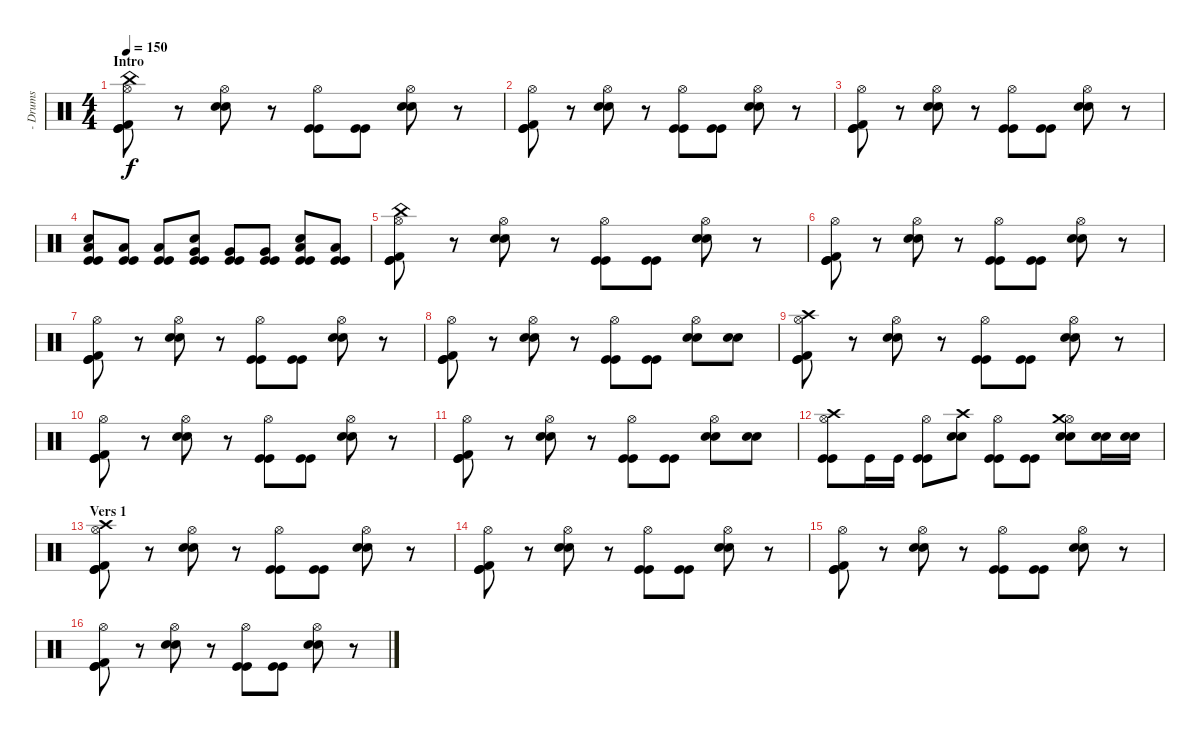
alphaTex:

\track (" - Drums" " - Drums") {instrument percussion}
\staff {score}
\articulation defaults
\ts (4 4)
\section ("" "Intro")
\tempo 150
\clef neutral
\ks c
("Hi-Hat (open)" "China (hit)" "Kick (hit) 2" "Kick (hit)" "Kick (hit)").8{dy f} r.8 ("Hi-Hat (open)" "Snare (hit) 2" "Snare (hit) 2").8 r.8 ("Hi-Hat (open)" "Kick (hit)" "Kick (hit)").8 ("Kick (hit)" "Kick (hit)").8 ("Hi-Hat (open)" "Snare (hit) 2" "Snare (hit) 2").8 r.8 |
("Hi-Hat (open)" "Kick (hit) 2" "Kick (hit)" "Kick (hit)").8 r.8 ("Hi-Hat (open)" "Snare (hit) 2" "Snare (hit) 2").8 r.8 ("Hi-Hat (open)" "Kick (hit)" "Kick (hit)").8 ("Kick (hit)" "Kick (hit)").8 ("Hi-Hat (open)" "Snare (hit) 2" "Snare (hit) 2").8 r.8 |
("Hi-Hat (open)" "Kick (hit) 2" "Kick (hit)" "Kick (hit)").8 r.8 ("Hi-Hat (open)" "Snare (hit) 2" "Snare (hit) 2").8 r.8 ("Hi-Hat (open)" "Kick (hit)" "Kick (hit)").8 ("Kick (hit)" "Kick (hit)").8 ("Hi-Hat (open)" "Snare (hit) 2" "Snare (hit) 2").8 r.8 |
("Low Tom (hit)" "Snare (hit) 2" "Kick (hit)" "Kick (hit)").8 ("Low Tom (hit)" "Kick (hit)" "Kick (hit)").8 ("Low Tom (hit)" "Kick (hit)" "Kick (hit)").8 ("Very Low Tom (hit)" "Snare (hit) 2" "Kick (hit)" "Kick (hit)").8 ("Very Low Tom (hit)" "Kick (hit)" "Kick (hit)").8 ("Very Low Tom (hit)" "Kick (hit)" "Kick (hit)").8 ("Low Floor Tom (hit)" "Snare (hit) 2" "Kick (hit)" "Kick (hit)").8 ("Low Floor Tom (hit)" "Kick (hit)" "Kick (hit)").8 |
("Hi-Hat (open)" "China (hit)" "Kick (hit) 2" "Kick (hit)" "Kick (hit)").8 r.8 ("Hi-Hat (open)" "Snare (hit) 2" "Snare (hit) 2").8 r.8 ("Hi-Hat (open)" "Kick (hit)" "Kick (hit)").8 ("Kick (hit)" "Kick (hit)").8 ("Hi-Hat (open)" "Snare (hit) 2" "Snare (hit) 2").8 r.8 |
("Hi-Hat (open)" "Kick (hit) 2" "Kick (hit)" "Kick (hit)").8 r.8 ("Hi-Hat (open)" "Snare (hit) 2" "Snare (hit) 2").8 r.8 ("Hi-Hat (open)" "Kick (hit)" "Kick (hit)").8 ("Kick (hit)" "Kick (hit)").8 ("Hi-Hat (open)" "Snare (hit) 2" "Snare (hit) 2").8 r.8 |
("Hi-Hat (open)" "Kick (hit) 2" "Kick (hit)" "Kick (hit)").8 r.8 ("Hi-Hat (open)" "Snare (hit) 2" "Snare (hit) 2").8 r.8 ("Hi-Hat (open)" "Kick (hit)" "Kick (hit)").8 ("Kick (hit)" "Kick (hit)").8 ("Hi-Hat (open)" "Snare (hit) 2" "Snare (hit) 2").8 r.8 |
("Hi-Hat (open)" "Kick (hit) 2" "Kick (hit)" "Kick (hit)").8 r.8 ("Hi-Hat (open)" "Snare (hit) 2" "Snare (hit) 2").8 r.8 ("Hi-Hat (open)" "Kick (hit)" "Kick (hit)").8 ("Kick (hit)" "Kick (hit)").8 ("Hi-Hat (open)" "Snare (hit) 2" "Snare (hit) 2").8 ("Snare (hit) 2" "Snare (hit) 2").8 |
("Hi-Hat (open)" "Crash high (hit)" "Kick (hit) 2" "Kick (hit)" "Kick (hit)").8 r.8 ("Hi-Hat (open)" "Snare (hit) 2" "Snare (hit) 2").8 r.8 ("Hi-Hat (open)" "Kick (hit)" "Kick (hit)").8 ("Kick (hit)" "Kick (hit)").8 ("Hi-Hat (open)" "Snare (hit) 2" "Snare (hit) 2").8 r.8 |
("Hi-Hat (open)" "Kick (hit) 2" "Kick (hit)" "Kick (hit)").8 r.8 ("Hi-Hat (open)" "Snare (hit) 2" "Snare (hit) 2").8 r.8 ("Hi-Hat (open)" "Kick (hit)" "Kick (hit)").8 ("Kick (hit)" "Kick (hit)").8 ("Hi-Hat (open)" "Snare (hit) 2" "Snare (hit) 2").8 r.8 |
("Hi-Hat (open)" "Kick (hit) 2" "Kick (hit)" "Kick (hit)").8 r.8 ("Hi-Hat (open)" "Snare (hit) 2" "Snare (hit) 2").8 r.8 ("Hi-Hat (open)" "Kick (hit)" "Kick (hit)").8 ("Kick (hit)" "Kick (hit)").8 ("Hi-Hat (open)" "Snare (hit) 2" "Snare (hit) 2").8 ("Snare (hit) 2" "Snare (hit) 2").8 |
("Hi-Hat (open)" "Crash high (hit)" "Kick (hit)" "Kick (hit)").8 "Kick (hit)".16 "Kick (hit)".16 ("Hi-Hat (open)" "Kick (hit)" "Kick (hit)").8 ("Crash high (hit)" "Snare (hit) 2" "Snare (hit) 2").8 ("Hi-Hat (open)" "Kick (hit)" "Kick (hit)").8 ("Kick (hit)" "Kick (hit)").8 ("Hi-Hat (open)" "Crash medium (hit)" "Snare (hit) 2" "Snare (hit) 2").8 ("Snare (hit) 2" "Snare (hit) 2").16 ("Snare (hit) 2" "Snare (hit) 2").16 |
\section ("" "Vers 1")
("Hi-Hat (open)" "Crash high (hit)" "Kick (hit) 2" "Kick (hit)" "Kick (hit)").8 r.8 ("Hi-Hat (open)" "Snare (hit) 2" "Snare (hit) 2").8 r.8 ("Hi-Hat (open)" "Kick (hit)" "Kick (hit)").8 ("Kick (hit)" "Kick (hit)").8 ("Hi-Hat (open)" "Snare (hit) 2" "Snare (hit) 2").8 r.8 |
("Hi-Hat (open)" "Kick (hit) 2" "Kick (hit)" "Kick (hit)").8 r.8 ("Hi-Hat (open)" "Snare (hit) 2" "Snare (hit) 2").8 r.8 ("Hi-Hat (open)" "Kick (hit)" "Kick (hit)").8 ("Kick (hit)" "Kick (hit)").8 ("Hi-Hat (open)" "Snare (hit) 2" "Snare (hit) 2").8 r.8 |
("Hi-Hat (open)" "Kick (hit) 2" "Kick (hit)" "Kick (hit)").8 r.8 ("Hi-Hat (open)" "Snare (hit) 2" "Snare (hit) 2").8 r.8 ("Hi-Hat (open)" "Kick (hit)" "Kick (hit)").8 ("Kick (hit)" "Kick (hit)").8 ("Hi-Hat (open)" "Snare (hit) 2" "Snare (hit) 2").8 r.8 |
("Hi-Hat (open)" "Kick (hit) 2" "Kick (hit)" "Kick (hit)").8 r.8 ("Hi-Hat (open)" "Snare (hit) 2" "Snare (hit) 2").8 r.8 ("Hi-Hat (open)" "Kick (hit)" "Kick (hit)").8 ("Kick (hit)" "Kick (hit)").8 ("Hi-Hat (open)" "Snare (hit) 2" "Snare (hit) 2").8 r.8
